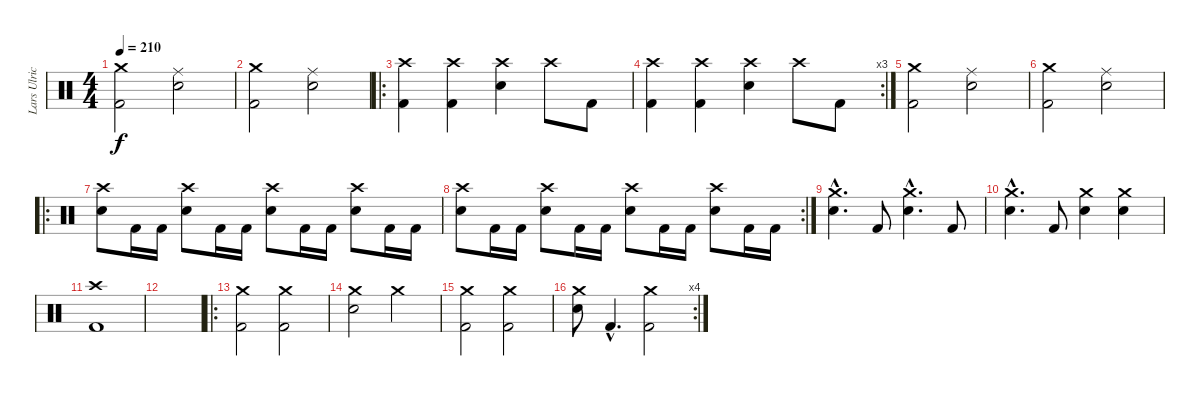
\track ("Lars Ulrich" "Lars Ulric") {instrument percussion}
\staff {score}
\articulation defaults
\ts (4 4)
\tempo 210
\clef neutral
\ks c
("Crash medium (hit)" "Kick (hit) 2").2{dy f} ("Ride (middle)" "Snare (hit) 2").2 |
("Crash medium (hit)" "Kick (hit) 2").2 ("Ride (middle)" "Snare (hit) 2").2 |
\ro
("Crash high (hit)" "Kick (hit) 2").4 ("Crash high (hit)" "Kick (hit) 2").4 ("Crash high (hit)" "Snare (hit) 2").4 "Crash high (hit)".8 "Kick (hit) 2".8 |
\rc 3
("Crash high (hit)" "Kick (hit) 2").4 ("Crash high (hit)" "Kick (hit) 2").4 ("Crash high (hit)" "Snare (hit) 2").4 "Crash high (hit)".8 "Kick (hit) 2".8 |
("Crash medium (hit)" "Kick (hit) 2").2 ("Ride (middle)" "Snare (hit) 2").2 |
("Crash medium (hit)" "Kick (hit) 2").2 ("Ride (middle)" "Snare (hit) 2").2 |
\ro
("Snare (hit) 2" "Crash high (hit)").8 "Kick (hit) 2".16 "Kick (hit) 2".16 ("Snare (hit) 2" "Crash high (hit)").8 "Kick (hit) 2".16 "Kick (hit) 2".16 ("Snare (hit) 2" "Crash high (hit)").8 "Kick (hit) 2".16 "Kick (hit) 2".16 ("Snare (hit) 2" "Crash high (hit)").8 "Kick (hit) 2".16 "Kick (hit) 2".16 |
\rc 2
("Snare (hit) 2" "Crash high (hit)").8 "Kick (hit) 2".16 "Kick (hit) 2".16 ("Snare (hit) 2" "Crash high (hit)").8 "Kick (hit) 2".16 "Kick (hit) 2".16 ("Snare (hit) 2" "Crash high (hit)").8 "Kick (hit) 2".16 "Kick (hit) 2".16 ("Snare (hit) 2" "Crash high (hit)").8 "Kick (hit) 2".16 "Kick (hit) 2".16 |
("Snare (hit) 2"{hac} "Crash medium (hit)"{hac}).4{d} "Kick (hit) 2".8 ("Snare (hit) 2"{hac} "Crash medium (hit)"{hac}).4{d} "Kick (hit) 2".8 |
("Crash medium (hit)"{hac} "Snare (hit) 2"{hac}).4{d} "Kick (hit) 2".8 ("Snare (hit) 2" "Crash medium (hit)").4 ("Snare (hit) 2" "Crash medium (hit)").4 |
("Crash high (hit)" "Kick (hit) 2").1 |
|
\ro
("Crash medium (hit)" "Kick (hit) 2").2 ("Crash medium (hit)" "Kick (hit) 2").2 |
("Crash medium (hit)" "Snare (hit) 2").2 "Crash medium (hit)".2 |
("Crash medium (hit)" "Kick (hit) 2").2 ("Crash medium (hit)" "Kick (hit) 2").2 |
\rc 4
("Crash medium (hit)" "Snare (hit) 2").8 "Kick (hit) 2"{hac}.4{d} ("Crash medium (hit)" "Kick (hit) 2").2
